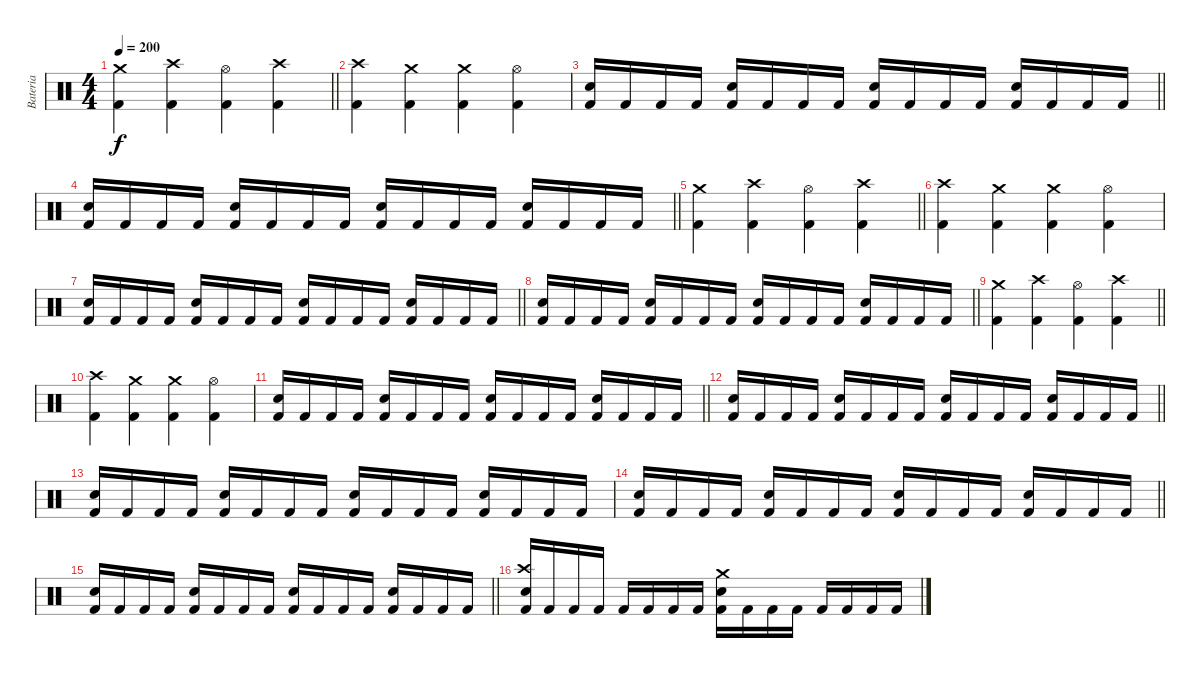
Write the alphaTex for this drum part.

\track ("Bateria" "Bateria") {instrument percussion}
\staff {score}
\articulation defaults
\ts (4 4)
\tempo 200
\clef neutral
\barLineRight lightlight
\ks c
("Crash medium (hit)" "Kick (hit) 2").4{dy f} ("Crash high (hit)" "Kick (hit) 2").4 ("Hi-Hat (open)" "Kick (hit) 2").4 ("Crash high (hit)" "Kick (hit) 2").4 |
("Crash high (hit)" "Kick (hit) 2").4 ("Crash medium (hit)" "Kick (hit) 2").4 ("Crash medium (hit)" "Kick (hit) 2").4 ("Hi-Hat (open)" "Kick (hit) 2").4 |
\barLineRight lightlight
("Electric Snare (hit)" "Kick (hit) 2").16 "Kick (hit) 2".16 "Kick (hit) 2".16 "Kick (hit) 2".16 ("Electric Snare (hit)" "Kick (hit) 2").16 "Kick (hit) 2".16 "Kick (hit) 2".16 "Kick (hit) 2".16 ("Electric Snare (hit)" "Kick (hit) 2").16 "Kick (hit) 2".16 "Kick (hit) 2".16 "Kick (hit) 2".16 ("Electric Snare (hit)" "Kick (hit) 2").16 "Kick (hit) 2".16 "Kick (hit) 2".16 "Kick (hit) 2".16 |
\barLineRight lightlight
("Electric Snare (hit)" "Kick (hit) 2").16 "Kick (hit) 2".16 "Kick (hit) 2".16 "Kick (hit) 2".16 ("Electric Snare (hit)" "Kick (hit) 2").16 "Kick (hit) 2".16 "Kick (hit) 2".16 "Kick (hit) 2".16 ("Electric Snare (hit)" "Kick (hit) 2").16 "Kick (hit) 2".16 "Kick (hit) 2".16 "Kick (hit) 2".16 ("Electric Snare (hit)" "Kick (hit) 2").16 "Kick (hit) 2".16 "Kick (hit) 2".16 "Kick (hit) 2".16 |
\barLineRight lightlight
("Crash medium (hit)" "Kick (hit) 2").4 ("Crash high (hit)" "Kick (hit) 2").4 ("Hi-Hat (open)" "Kick (hit) 2").4 ("Crash high (hit)" "Kick (hit) 2").4 |
("Crash high (hit)" "Kick (hit) 2").4 ("Crash medium (hit)" "Kick (hit) 2").4 ("Crash medium (hit)" "Kick (hit) 2").4 ("Hi-Hat (open)" "Kick (hit) 2").4 |
\barLineRight lightlight
("Electric Snare (hit)" "Kick (hit) 2").16 "Kick (hit) 2".16 "Kick (hit) 2".16 "Kick (hit) 2".16 ("Electric Snare (hit)" "Kick (hit) 2").16 "Kick (hit) 2".16 "Kick (hit) 2".16 "Kick (hit) 2".16 ("Electric Snare (hit)" "Kick (hit) 2").16 "Kick (hit) 2".16 "Kick (hit) 2".16 "Kick (hit) 2".16 ("Electric Snare (hit)" "Kick (hit) 2").16 "Kick (hit) 2".16 "Kick (hit) 2".16 "Kick (hit) 2".16 |
\barLineRight lightlight
("Electric Snare (hit)" "Kick (hit) 2").16 "Kick (hit) 2".16 "Kick (hit) 2".16 "Kick (hit) 2".16 ("Electric Snare (hit)" "Kick (hit) 2").16 "Kick (hit) 2".16 "Kick (hit) 2".16 "Kick (hit) 2".16 ("Electric Snare (hit)" "Kick (hit) 2").16 "Kick (hit) 2".16 "Kick (hit) 2".16 "Kick (hit) 2".16 ("Electric Snare (hit)" "Kick (hit) 2").16 "Kick (hit) 2".16 "Kick (hit) 2".16 "Kick (hit) 2".16 |
\barLineRight lightlight
("Crash medium (hit)" "Kick (hit) 2").4 ("Crash high (hit)" "Kick (hit) 2").4 ("Hi-Hat (open)" "Kick (hit) 2").4 ("Crash high (hit)" "Kick (hit) 2").4 |
("Crash high (hit)" "Kick (hit) 2").4 ("Crash medium (hit)" "Kick (hit) 2").4 ("Crash medium (hit)" "Kick (hit) 2").4 ("Hi-Hat (open)" "Kick (hit) 2").4 |
\barLineRight lightlight
("Electric Snare (hit)" "Kick (hit) 2").16 "Kick (hit) 2".16 "Kick (hit) 2".16 "Kick (hit) 2".16 ("Electric Snare (hit)" "Kick (hit) 2").16 "Kick (hit) 2".16 "Kick (hit) 2".16 "Kick (hit) 2".16 ("Electric Snare (hit)" "Kick (hit) 2").16 "Kick (hit) 2".16 "Kick (hit) 2".16 "Kick (hit) 2".16 ("Electric Snare (hit)" "Kick (hit) 2").16 "Kick (hit) 2".16 "Kick (hit) 2".16 "Kick (hit) 2".16 |
\barLineRight lightlight
("Electric Snare (hit)" "Kick (hit) 2").16 "Kick (hit) 2".16 "Kick (hit) 2".16 "Kick (hit) 2".16 ("Electric Snare (hit)" "Kick (hit) 2").16 "Kick (hit) 2".16 "Kick (hit) 2".16 "Kick (hit) 2".16 ("Electric Snare (hit)" "Kick (hit) 2").16 "Kick (hit) 2".16 "Kick (hit) 2".16 "Kick (hit) 2".16 ("Electric Snare (hit)" "Kick (hit) 2").16 "Kick (hit) 2".16 "Kick (hit) 2".16 "Kick (hit) 2".16 |
("Electric Snare (hit)" "Kick (hit) 2").16 "Kick (hit) 2".16 "Kick (hit) 2".16 "Kick (hit) 2".16 ("Electric Snare (hit)" "Kick (hit) 2").16 "Kick (hit) 2".16 "Kick (hit) 2".16 "Kick (hit) 2".16 ("Electric Snare (hit)" "Kick (hit) 2").16 "Kick (hit) 2".16 "Kick (hit) 2".16 "Kick (hit) 2".16 ("Electric Snare (hit)" "Kick (hit) 2").16 "Kick (hit) 2".16 "Kick (hit) 2".16 "Kick (hit) 2".16 |
\barLineRight lightlight
("Electric Snare (hit)" "Kick (hit) 2").16 "Kick (hit) 2".16 "Kick (hit) 2".16 "Kick (hit) 2".16 ("Electric Snare (hit)" "Kick (hit) 2").16 "Kick (hit) 2".16 "Kick (hit) 2".16 "Kick (hit) 2".16 ("Electric Snare (hit)" "Kick (hit) 2").16 "Kick (hit) 2".16 "Kick (hit) 2".16 "Kick (hit) 2".16 ("Electric Snare (hit)" "Kick (hit) 2").16 "Kick (hit) 2".16 "Kick (hit) 2".16 "Kick (hit) 2".16 |
\barLineRight lightlight
("Electric Snare (hit)" "Kick (hit) 2").16 "Kick (hit) 2".16 "Kick (hit) 2".16 "Kick (hit) 2".16 ("Electric Snare (hit)" "Kick (hit) 2").16 "Kick (hit) 2".16 "Kick (hit) 2".16 "Kick (hit) 2".16 ("Electric Snare (hit)" "Kick (hit) 2").16 "Kick (hit) 2".16 "Kick (hit) 2".16 "Kick (hit) 2".16 ("Electric Snare (hit)" "Kick (hit) 2").16 "Kick (hit) 2".16 "Kick (hit) 2".16 "Kick (hit) 2".16 |
("Crash high (hit)" "Electric Snare (hit)" "Kick (hit) 2").16 "Kick (hit) 2".16 "Kick (hit) 2".16 "Kick (hit) 2".16 "Kick (hit) 2".16 "Kick (hit) 2".16 "Kick (hit) 2".16 "Kick (hit) 2".16 ("Crash medium (hit)" "Electric Snare (hit)" "Kick (hit) 2").16 "Kick (hit) 2".16 "Kick (hit) 2".16 "Kick (hit) 2".16 "Kick (hit) 2".16 "Kick (hit) 2".16 "Kick (hit) 2".16 "Kick (hit) 2".16
